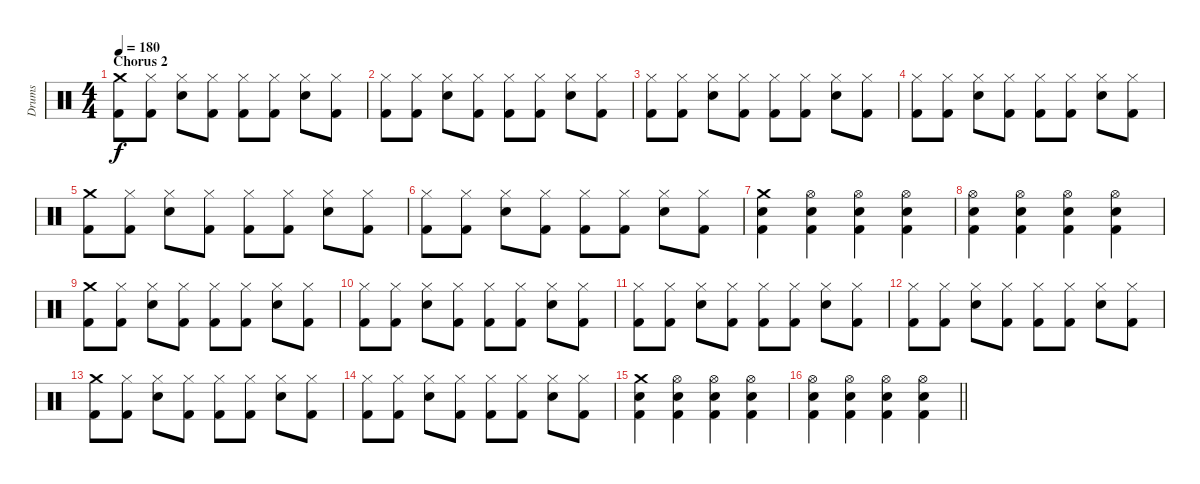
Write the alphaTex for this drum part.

\track ("Drums" "Drums") {instrument percussion}
\staff {score}
\articulation defaults
\ts (4 4)
\section ("" "Chorus 2")
\tempo 180
\clef neutral
\ks c
("Crash medium (hit)" "Kick (hit) 2").8{dy f} ("Hi-Hat (closed)" "Kick (hit) 2").8 ("Hi-Hat (closed)" "Electric Snare (hit)").8 ("Hi-Hat (closed)" "Kick (hit) 2").8 ("Hi-Hat (closed)" "Kick (hit) 2").8 ("Hi-Hat (closed)" "Kick (hit) 2").8 ("Hi-Hat (closed)" "Electric Snare (hit)").8 ("Hi-Hat (closed)" "Kick (hit) 2").8 |
("Hi-Hat (closed)" "Kick (hit) 2").8 ("Hi-Hat (closed)" "Kick (hit) 2").8 ("Hi-Hat (closed)" "Electric Snare (hit)").8 ("Hi-Hat (closed)" "Kick (hit) 2").8 ("Hi-Hat (closed)" "Kick (hit) 2").8 ("Hi-Hat (closed)" "Kick (hit) 2").8 ("Hi-Hat (closed)" "Electric Snare (hit)").8 ("Hi-Hat (closed)" "Kick (hit) 2").8 |
("Hi-Hat (closed)" "Kick (hit) 2").8 ("Hi-Hat (closed)" "Kick (hit) 2").8 ("Hi-Hat (closed)" "Electric Snare (hit)").8 ("Hi-Hat (closed)" "Kick (hit) 2").8 ("Hi-Hat (closed)" "Kick (hit) 2").8 ("Hi-Hat (closed)" "Kick (hit) 2").8 ("Hi-Hat (closed)" "Electric Snare (hit)").8 ("Hi-Hat (closed)" "Kick (hit) 2").8 |
("Hi-Hat (closed)" "Kick (hit) 2").8 ("Hi-Hat (closed)" "Kick (hit) 2").8 ("Hi-Hat (closed)" "Electric Snare (hit)").8 ("Hi-Hat (closed)" "Kick (hit) 2").8 ("Hi-Hat (closed)" "Kick (hit) 2").8 ("Hi-Hat (closed)" "Kick (hit) 2").8 ("Hi-Hat (closed)" "Electric Snare (hit)").8 ("Hi-Hat (closed)" "Kick (hit) 2").8 |
("Crash medium (hit)" "Kick (hit) 2").8 ("Hi-Hat (closed)" "Kick (hit) 2").8 ("Hi-Hat (closed)" "Electric Snare (hit)").8 ("Hi-Hat (closed)" "Kick (hit) 2").8 ("Hi-Hat (closed)" "Kick (hit) 2").8 ("Hi-Hat (closed)" "Kick (hit) 2").8 ("Hi-Hat (closed)" "Electric Snare (hit)").8 ("Hi-Hat (closed)" "Kick (hit) 2").8 |
("Hi-Hat (closed)" "Kick (hit) 2").8 ("Hi-Hat (closed)" "Kick (hit) 2").8 ("Hi-Hat (closed)" "Electric Snare (hit)").8 ("Hi-Hat (closed)" "Kick (hit) 2").8 ("Hi-Hat (closed)" "Kick (hit) 2").8 ("Hi-Hat (closed)" "Kick (hit) 2").8 ("Hi-Hat (closed)" "Electric Snare (hit)").8 ("Hi-Hat (closed)" "Kick (hit) 2").8 |
("Crash medium (hit)" "Electric Snare (hit)" "Kick (hit) 2").4 ("Hi-Hat (open)" "Electric Snare (hit)" "Kick (hit) 2").4 ("Hi-Hat (open)" "Electric Snare (hit)" "Kick (hit) 2").4 ("Hi-Hat (open)" "Electric Snare (hit)" "Kick (hit) 2").4 |
("Hi-Hat (open)" "Electric Snare (hit)" "Kick (hit) 2").4 ("Hi-Hat (open)" "Electric Snare (hit)" "Kick (hit) 2").4 ("Hi-Hat (open)" "Electric Snare (hit)" "Kick (hit) 2").4 ("Hi-Hat (open)" "Electric Snare (hit)" "Kick (hit) 2").4 |
("Crash medium (hit)" "Kick (hit) 2").8 ("Hi-Hat (closed)" "Kick (hit) 2").8 ("Hi-Hat (closed)" "Electric Snare (hit)").8 ("Hi-Hat (closed)" "Kick (hit) 2").8 ("Hi-Hat (closed)" "Kick (hit) 2").8 ("Hi-Hat (closed)" "Kick (hit) 2").8 ("Hi-Hat (closed)" "Electric Snare (hit)").8 ("Hi-Hat (closed)" "Kick (hit) 2").8 |
("Hi-Hat (closed)" "Kick (hit) 2").8 ("Hi-Hat (closed)" "Kick (hit) 2").8 ("Hi-Hat (closed)" "Electric Snare (hit)").8 ("Hi-Hat (closed)" "Kick (hit) 2").8 ("Hi-Hat (closed)" "Kick (hit) 2").8 ("Hi-Hat (closed)" "Kick (hit) 2").8 ("Hi-Hat (closed)" "Electric Snare (hit)").8 ("Hi-Hat (closed)" "Kick (hit) 2").8 |
("Hi-Hat (closed)" "Kick (hit) 2").8 ("Hi-Hat (closed)" "Kick (hit) 2").8 ("Hi-Hat (closed)" "Electric Snare (hit)").8 ("Hi-Hat (closed)" "Kick (hit) 2").8 ("Hi-Hat (closed)" "Kick (hit) 2").8 ("Hi-Hat (closed)" "Kick (hit) 2").8 ("Hi-Hat (closed)" "Electric Snare (hit)").8 ("Hi-Hat (closed)" "Kick (hit) 2").8 |
("Hi-Hat (closed)" "Kick (hit) 2").8 ("Hi-Hat (closed)" "Kick (hit) 2").8 ("Hi-Hat (closed)" "Electric Snare (hit)").8 ("Hi-Hat (closed)" "Kick (hit) 2").8 ("Hi-Hat (closed)" "Kick (hit) 2").8 ("Hi-Hat (closed)" "Kick (hit) 2").8 ("Hi-Hat (closed)" "Electric Snare (hit)").8 ("Hi-Hat (closed)" "Kick (hit) 2").8 |
("Crash medium (hit)" "Kick (hit) 2").8 ("Hi-Hat (closed)" "Kick (hit) 2").8 ("Hi-Hat (closed)" "Electric Snare (hit)").8 ("Hi-Hat (closed)" "Kick (hit) 2").8 ("Hi-Hat (closed)" "Kick (hit) 2").8 ("Hi-Hat (closed)" "Kick (hit) 2").8 ("Hi-Hat (closed)" "Electric Snare (hit)").8 ("Hi-Hat (closed)" "Kick (hit) 2").8 |
("Hi-Hat (closed)" "Kick (hit) 2").8 ("Hi-Hat (closed)" "Kick (hit) 2").8 ("Hi-Hat (closed)" "Electric Snare (hit)").8 ("Hi-Hat (closed)" "Kick (hit) 2").8 ("Hi-Hat (closed)" "Kick (hit) 2").8 ("Hi-Hat (closed)" "Kick (hit) 2").8 ("Hi-Hat (closed)" "Electric Snare (hit)").8 ("Hi-Hat (closed)" "Kick (hit) 2").8 |
("Crash medium (hit)" "Electric Snare (hit)" "Kick (hit) 2").4 ("Hi-Hat (open)" "Electric Snare (hit)" "Kick (hit) 2").4 ("Hi-Hat (open)" "Electric Snare (hit)" "Kick (hit) 2").4 ("Hi-Hat (open)" "Electric Snare (hit)" "Kick (hit) 2").4 |
\barLineRight lightlight
("Hi-Hat (open)" "Electric Snare (hit)" "Kick (hit) 2").4 ("Hi-Hat (open)" "Electric Snare (hit)" "Kick (hit) 2").4 ("Hi-Hat (open)" "Electric Snare (hit)" "Kick (hit) 2").4 ("Hi-Hat (open)" "Electric Snare (hit)" "Kick (hit) 2").4
